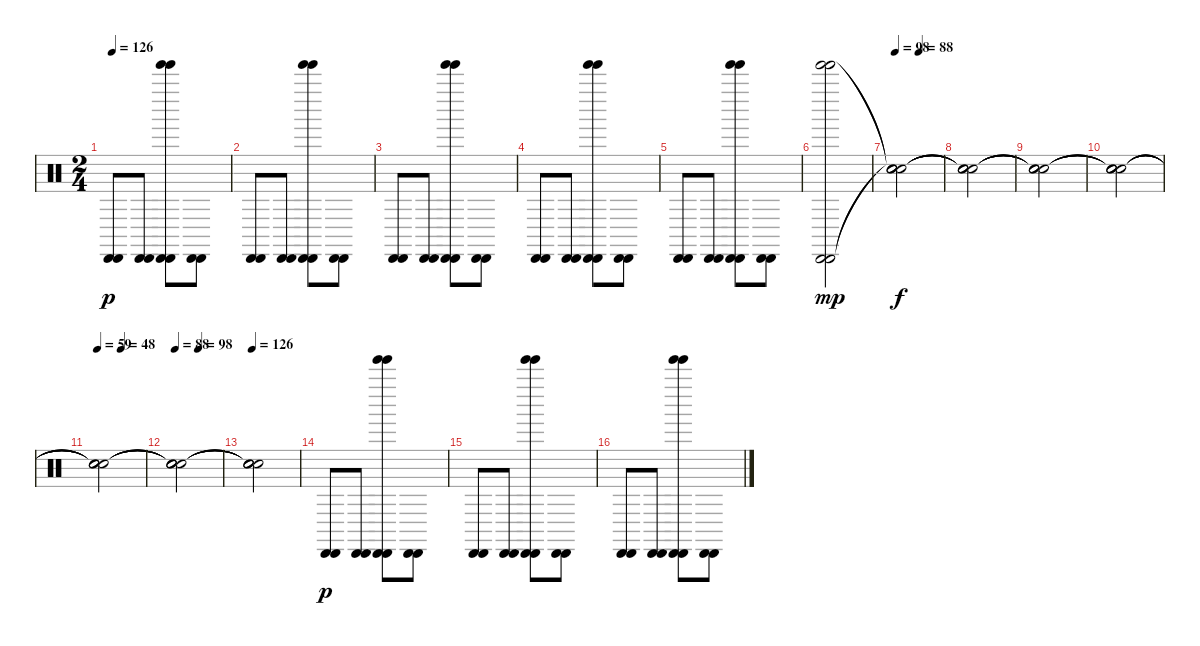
\track "" {instrument percussion}
\staff {score}
\articulation defaults
\ts (2 4)
\tempo 126
\clef neutral
\ks c
("Cabasa (hit)" "Cabasa (hit)").8{dy p} ("Cabasa (hit)" "Cabasa (hit)").8 ("Tinkle Bell (hit)" "Cabasa (hit)" "Tinkle Bell (hit)" "Cabasa (hit)").8 ("Cabasa (hit)" "Cabasa (hit)").8 |
("Cabasa (hit)" "Cabasa (hit)").8 ("Cabasa (hit)" "Cabasa (hit)").8 ("Tinkle Bell (hit)" "Cabasa (hit)" "Tinkle Bell (hit)" "Cabasa (hit)").8 ("Cabasa (hit)" "Cabasa (hit)").8 |
("Cabasa (hit)" "Cabasa (hit)").8 ("Cabasa (hit)" "Cabasa (hit)").8 ("Tinkle Bell (hit)" "Cabasa (hit)" "Tinkle Bell (hit)" "Cabasa (hit)").8 ("Cabasa (hit)" "Cabasa (hit)").8 |
("Cabasa (hit)" "Cabasa (hit)").8 ("Cabasa (hit)" "Cabasa (hit)").8 ("Tinkle Bell (hit)" "Cabasa (hit)" "Tinkle Bell (hit)" "Cabasa (hit)").8 ("Cabasa (hit)" "Cabasa (hit)").8 |
("Cabasa (hit)" "Cabasa (hit)").8 ("Cabasa (hit)" "Cabasa (hit)").8 ("Tinkle Bell (hit)" "Cabasa (hit)" "Tinkle Bell (hit)" "Cabasa (hit)").8 ("Cabasa (hit)" "Cabasa (hit)").8 |
("Tinkle Bell (hit)" "Cabasa (hit)" "Tinkle Bell (hit)" "Cabasa (hit)").2{dy mp} |
\tempo 98
\tempo (88 0.5)
("Snare (hit)"{t} "Snare (hit)"{t} "Snare (hit)"{t} "Snare (hit)"{t}).2{dy f} |
("Snare (hit)"{t} "Snare (hit)"{t} "Snare (hit)"{t} "Snare (hit)"{t}).2 |
("Snare (hit)"{t} "Snare (hit)"{t} "Snare (hit)"{t} "Snare (hit)"{t}).2 |
("Snare (hit)"{t} "Snare (hit)"{t} "Snare (hit)"{t} "Snare (hit)"{t}).2 |
\tempo 59
\tempo (48 0.5)
("Snare (hit)"{t} "Snare (hit)"{t} "Snare (hit)"{t} "Snare (hit)"{t}).2 |
\tempo 88
\tempo (98 0.5)
("Snare (hit)"{t} "Snare (hit)"{t} "Snare (hit)"{t} "Snare (hit)"{t}).2 |
\tempo 126
("Snare (hit)"{t} "Snare (hit)"{t} "Snare (hit)"{t} "Snare (hit)"{t}).2 |
("Cabasa (hit)" "Cabasa (hit)").8{dy p} ("Cabasa (hit)" "Cabasa (hit)").8 ("Tinkle Bell (hit)" "Cabasa (hit)" "Tinkle Bell (hit)" "Cabasa (hit)").8 ("Cabasa (hit)" "Cabasa (hit)").8 |
("Cabasa (hit)" "Cabasa (hit)").8 ("Cabasa (hit)" "Cabasa (hit)").8 ("Tinkle Bell (hit)" "Cabasa (hit)" "Tinkle Bell (hit)" "Cabasa (hit)").8 ("Cabasa (hit)" "Cabasa (hit)").8 |
("Cabasa (hit)" "Cabasa (hit)").8 ("Cabasa (hit)" "Cabasa (hit)").8 ("Tinkle Bell (hit)" "Cabasa (hit)" "Tinkle Bell (hit)" "Cabasa (hit)").8 ("Cabasa (hit)" "Cabasa (hit)").8
